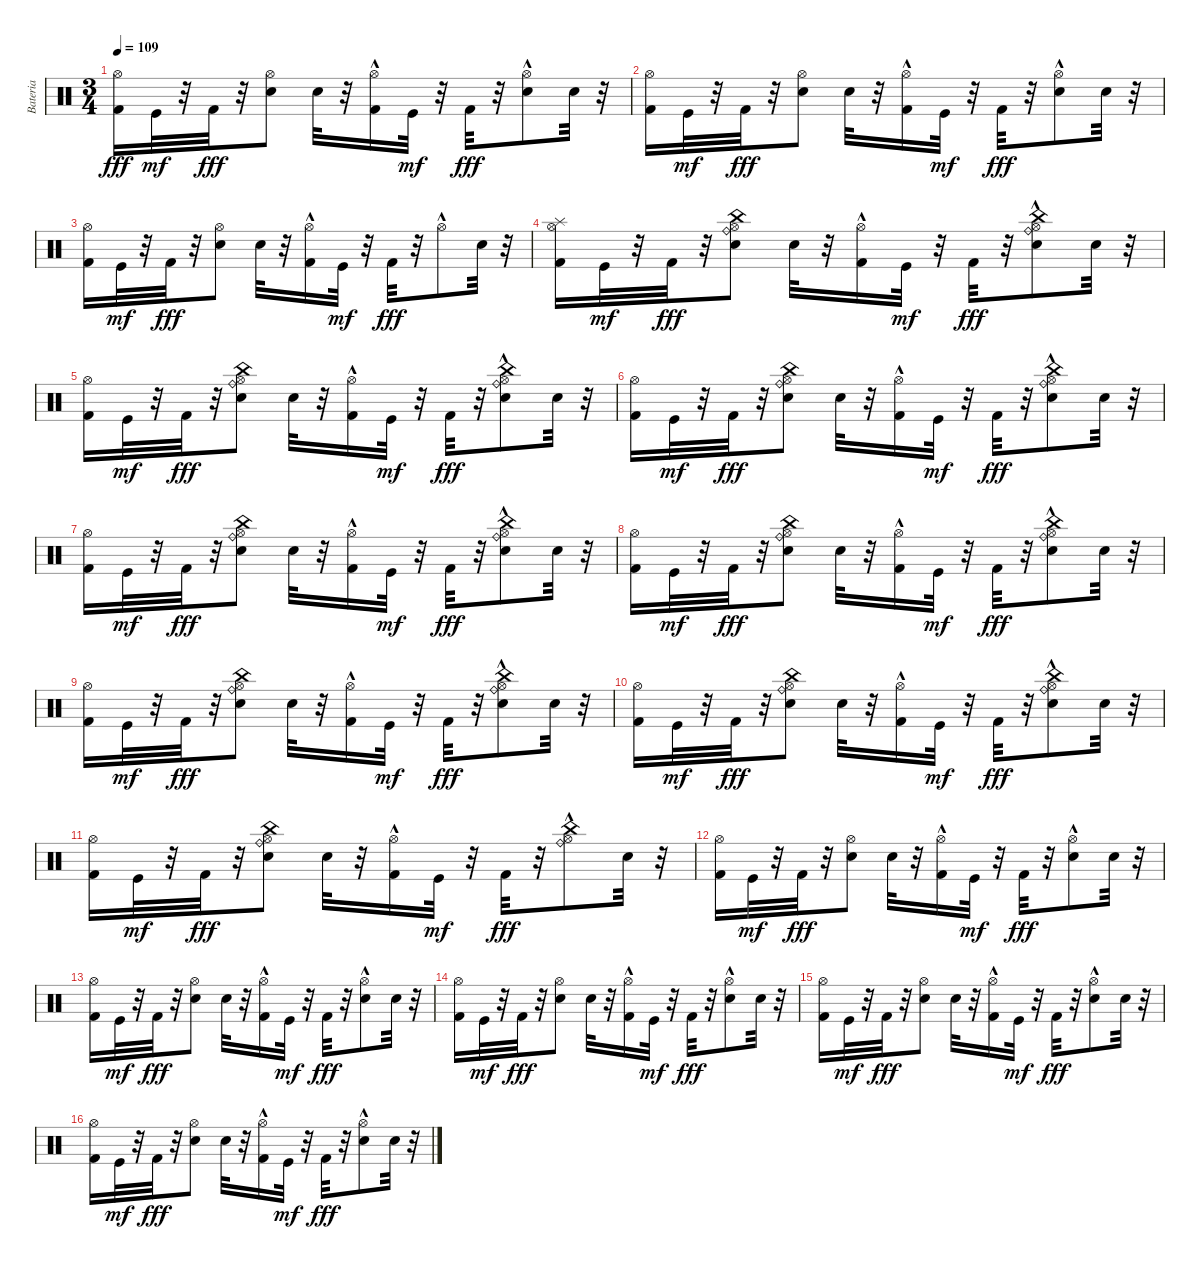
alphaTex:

\track ("Bateria" "Bateria") {instrument percussion}
\staff {score}
\articulation defaults
\ts (3 4)
\tempo 109
\clef neutral
\ks c
("Kick (hit) 2" "Hi-Hat (open)").16{dy fff} "Kick (hit)".32{dy mf} r.32 "Kick (hit) 2".32{dy fff} r.32 ("Electric Snare (hit)" "Hi-Hat (open)").8 "Electric Snare (hit)".32 r.32 ("Kick (hit) 2" "Hi-Hat (open)"{hac}).16 "Kick (hit)".32{dy mf} r.32 "Kick (hit) 2".32{dy fff} r.32 ("Electric Snare (hit)" "Hi-Hat (open)"{hac}).8 "Electric Snare (hit)".32 r.32 |
("Kick (hit) 2" "Hi-Hat (open)").16 "Kick (hit)".32{dy mf} r.32 "Kick (hit) 2".32{dy fff} r.32 ("Electric Snare (hit)" "Hi-Hat (open)").8 "Electric Snare (hit)".32 r.32 ("Kick (hit) 2" "Hi-Hat (open)"{hac}).16 "Kick (hit)".32{dy mf} r.32 "Kick (hit) 2".32{dy fff} r.32 ("Electric Snare (hit)" "Hi-Hat (open)"{hac}).8 "Electric Snare (hit)".32 r.32 |
("Kick (hit) 2" "Hi-Hat (open)").16 "Kick (hit)".32{dy mf} r.32 "Kick (hit) 2".32{dy fff} r.32 ("Electric Snare (hit)" "Hi-Hat (open)").8 "Electric Snare (hit)".32 r.32 ("Kick (hit) 2" "Hi-Hat (open)"{hac}).16 "Kick (hit)".32{dy mf} r.32 "Kick (hit) 2".32{dy fff} r.32 "Hi-Hat (open)"{hac}.8 "Electric Snare (hit)".32 r.32 |
("Splash (hit)" "Kick (hit) 2" "Hi-Hat (open)").16 "Kick (hit)".32{dy mf} r.32 "Kick (hit) 2".32{dy fff} r.32 ("Ride (bell)" "China (hit)" "Electric Snare (hit)" "Hi-Hat (open)").8 "Electric Snare (hit)".32 r.32 ("Kick (hit) 2" "Hi-Hat (open)"{hac}).16 "Kick (hit)".32{dy mf} r.32 "Kick (hit) 2".32{dy fff} r.32 ("Ride (bell)" "China (hit)" "Electric Snare (hit)" "Hi-Hat (open)"{hac}).8 "Electric Snare (hit)".32 r.32 |
("Kick (hit) 2" "Hi-Hat (open)").16 "Kick (hit)".32{dy mf} r.32 "Kick (hit) 2".32{dy fff} r.32 ("Ride (bell)" "Electric Snare (hit)" "Hi-Hat (open)" "China (hit)").8 "Electric Snare (hit)".32 r.32 ("Kick (hit) 2" "Hi-Hat (open)"{hac}).16 "Kick (hit)".32{dy mf} r.32 "Kick (hit) 2".32{dy fff} r.32 ("Ride (bell)" "Electric Snare (hit)" "Hi-Hat (open)"{hac} "China (hit)").8 "Electric Snare (hit)".32 r.32 |
("Kick (hit) 2" "Hi-Hat (open)").16 "Kick (hit)".32{dy mf} r.32 "Kick (hit) 2".32{dy fff} r.32 ("Ride (bell)" "Electric Snare (hit)" "Hi-Hat (open)" "China (hit)").8 "Electric Snare (hit)".32 r.32 ("Kick (hit) 2" "Hi-Hat (open)"{hac}).16 "Kick (hit)".32{dy mf} r.32 "Kick (hit) 2".32{dy fff} r.32 ("Ride (bell)" "Electric Snare (hit)" "Hi-Hat (open)"{hac} "China (hit)").8 "Electric Snare (hit)".32 r.32 |
("Kick (hit) 2" "Hi-Hat (open)").16 "Kick (hit)".32{dy mf} r.32 "Kick (hit) 2".32{dy fff} r.32 ("Ride (bell)" "Electric Snare (hit)" "Hi-Hat (open)" "China (hit)").8 "Electric Snare (hit)".32 r.32 ("Kick (hit) 2" "Hi-Hat (open)"{hac}).16 "Kick (hit)".32{dy mf} r.32 "Kick (hit) 2".32{dy fff} r.32 ("Ride (bell)" "Electric Snare (hit)" "Hi-Hat (open)"{hac} "China (hit)").8 "Electric Snare (hit)".32 r.32 |
("Kick (hit) 2" "Hi-Hat (open)").16 "Kick (hit)".32{dy mf} r.32 "Kick (hit) 2".32{dy fff} r.32 ("Ride (bell)" "Electric Snare (hit)" "Hi-Hat (open)" "China (hit)").8 "Electric Snare (hit)".32 r.32 ("Kick (hit) 2" "Hi-Hat (open)"{hac}).16 "Kick (hit)".32{dy mf} r.32 "Kick (hit) 2".32{dy fff} r.32 ("Ride (bell)" "Electric Snare (hit)" "Hi-Hat (open)"{hac} "China (hit)").8 "Electric Snare (hit)".32 r.32 |
("Kick (hit) 2" "Hi-Hat (open)").16 "Kick (hit)".32{dy mf} r.32 "Kick (hit) 2".32{dy fff} r.32 ("Ride (bell)" "Electric Snare (hit)" "Hi-Hat (open)" "China (hit)").8 "Electric Snare (hit)".32 r.32 ("Kick (hit) 2" "Hi-Hat (open)"{hac}).16 "Kick (hit)".32{dy mf} r.32 "Kick (hit) 2".32{dy fff} r.32 ("Ride (bell)" "Electric Snare (hit)" "Hi-Hat (open)"{hac} "China (hit)").8 "Electric Snare (hit)".32 r.32 |
("Kick (hit) 2" "Hi-Hat (open)").16 "Kick (hit)".32{dy mf} r.32 "Kick (hit) 2".32{dy fff} r.32 ("Ride (bell)" "Electric Snare (hit)" "Hi-Hat (open)" "China (hit)").8 "Electric Snare (hit)".32 r.32 ("Kick (hit) 2" "Hi-Hat (open)"{hac}).16 "Kick (hit)".32{dy mf} r.32 "Kick (hit) 2".32{dy fff} r.32 ("Ride (bell)" "Electric Snare (hit)" "Hi-Hat (open)"{hac} "China (hit)").8 "Electric Snare (hit)".32 r.32 |
("Kick (hit) 2" "Hi-Hat (open)").16 "Kick (hit)".32{dy mf} r.32 "Kick (hit) 2".32{dy fff} r.32 ("Ride (bell)" "Electric Snare (hit)" "Hi-Hat (open)" "China (hit)").8 "Electric Snare (hit)".32 r.32 ("Kick (hit) 2" "Hi-Hat (open)"{hac}).16 "Kick (hit)".32{dy mf} r.32 "Kick (hit) 2".32{dy fff} r.32 ("Ride (bell)" "Hi-Hat (open)"{hac} "China (hit)").8 "Electric Snare (hit)".32 r.32 |
("Kick (hit) 2" "Hi-Hat (open)").16 "Kick (hit)".32{dy mf} r.32 "Kick (hit) 2".32{dy fff} r.32 ("Electric Snare (hit)" "Hi-Hat (open)").8 "Electric Snare (hit)".32 r.32 ("Kick (hit) 2" "Hi-Hat (open)"{hac}).16 "Kick (hit)".32{dy mf} r.32 "Kick (hit) 2".32{dy fff} r.32 ("Electric Snare (hit)" "Hi-Hat (open)"{hac}).8 "Electric Snare (hit)".32 r.32 |
("Kick (hit) 2" "Hi-Hat (open)").16 "Kick (hit)".32{dy mf} r.32 "Kick (hit) 2".32{dy fff} r.32 ("Electric Snare (hit)" "Hi-Hat (open)").8 "Electric Snare (hit)".32 r.32 ("Kick (hit) 2" "Hi-Hat (open)"{hac}).16 "Kick (hit)".32{dy mf} r.32 "Kick (hit) 2".32{dy fff} r.32 ("Electric Snare (hit)" "Hi-Hat (open)"{hac}).8 "Electric Snare (hit)".32 r.32 |
("Kick (hit) 2" "Hi-Hat (open)").16 "Kick (hit)".32{dy mf} r.32 "Kick (hit) 2".32{dy fff} r.32 ("Electric Snare (hit)" "Hi-Hat (open)").8 "Electric Snare (hit)".32 r.32 ("Kick (hit) 2" "Hi-Hat (open)"{hac}).16 "Kick (hit)".32{dy mf} r.32 "Kick (hit) 2".32{dy fff} r.32 ("Electric Snare (hit)" "Hi-Hat (open)"{hac}).8 "Electric Snare (hit)".32 r.32 |
("Kick (hit) 2" "Hi-Hat (open)").16 "Kick (hit)".32{dy mf} r.32 "Kick (hit) 2".32{dy fff} r.32 ("Electric Snare (hit)" "Hi-Hat (open)").8 "Electric Snare (hit)".32 r.32 ("Kick (hit) 2" "Hi-Hat (open)"{hac}).16 "Kick (hit)".32{dy mf} r.32 "Kick (hit) 2".32{dy fff} r.32 ("Electric Snare (hit)" "Hi-Hat (open)"{hac}).8 "Electric Snare (hit)".32 r.32 |
("Kick (hit) 2" "Hi-Hat (open)").16 "Kick (hit)".32{dy mf} r.32 "Kick (hit) 2".32{dy fff} r.32 ("Electric Snare (hit)" "Hi-Hat (open)").8 "Electric Snare (hit)".32 r.32 ("Kick (hit) 2" "Hi-Hat (open)"{hac}).16 "Kick (hit)".32{dy mf} r.32 "Kick (hit) 2".32{dy fff} r.32 ("Electric Snare (hit)" "Hi-Hat (open)"{hac}).8 "Electric Snare (hit)".32 r.32
